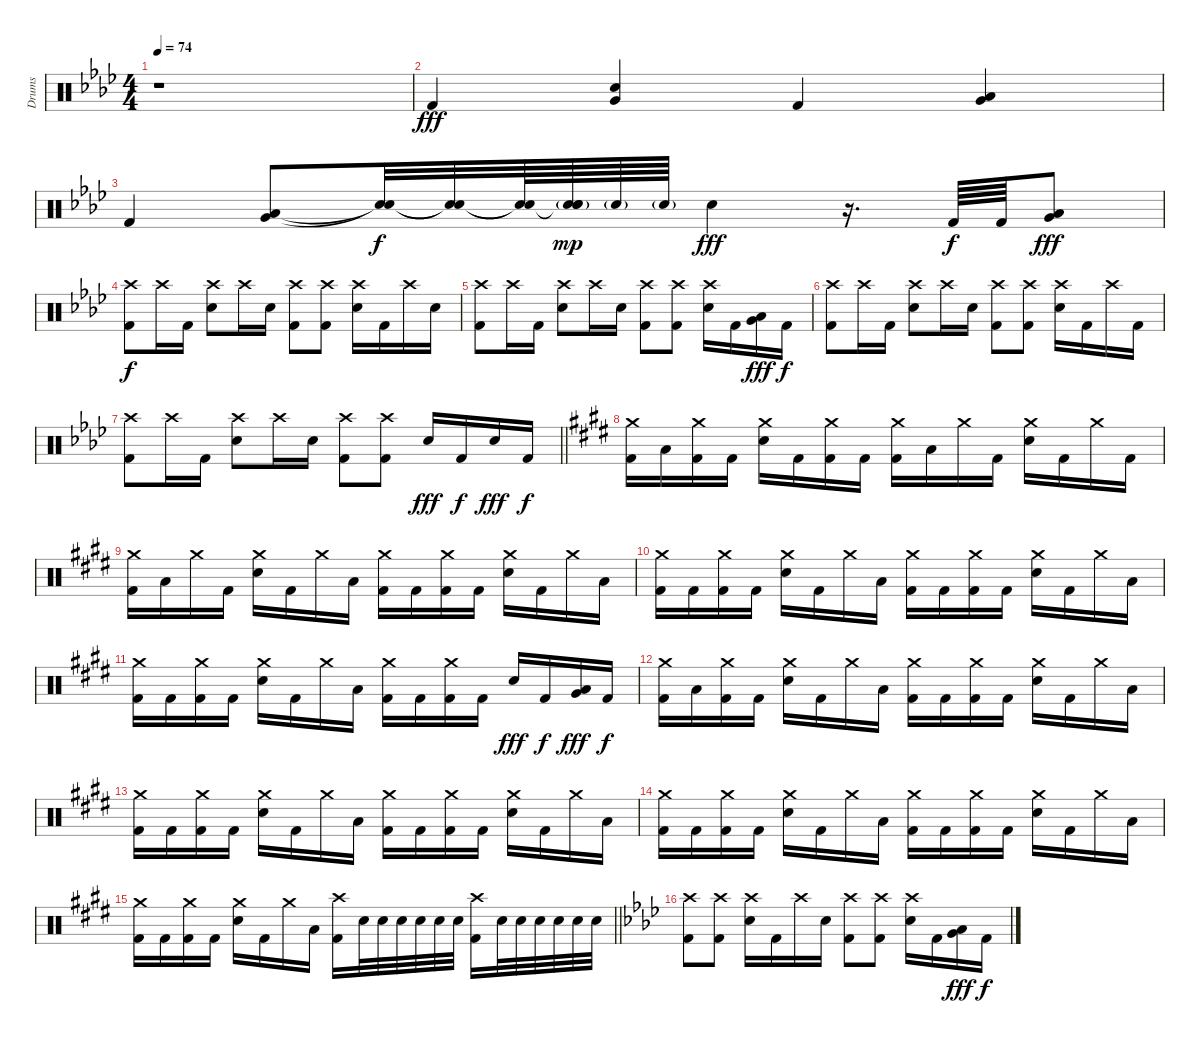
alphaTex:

\track ("Drums" "Drums") {instrument percussion}
\staff {score}
\articulation defaults
\ts (4 4)
\tempo 74
\clef neutral
\ks fminor
r.1{dy f} |
"Kick (hit) 2".4{dy fff} ("Snare (hit) 2" "Very Low Tom (hit)").4 "Kick (hit) 2".4 ("Low Tom (hit)" "Very Low Tom (hit)").4 |
"Kick (hit) 2".4 ("Low Tom (hit)" "Very Low Tom (hit)").8 ("Snare (hit)"{t} "Snare (hit)"{t}).32{dy f} ("Snare (hit)"{t} "Snare (hit)"{t}).32 ("Snare (hit)"{t} "Snare (hit)"{t}).64 ("Snare (hit) 2"{g} "Snare (hit)"{t} "Snare (hit)"{t}).64{dy mp} "Snare (hit) 2"{g}.64 "Snare (hit) 2"{g}.64 "Snare (hit) 2".4{dy fff} r.16{d} "Kick (hit) 2".64{dy f} "Kick (hit) 2".64 ("Low Tom (hit)" "Very Low Tom (hit)").8{dy fff} |
("Crash high (hit)" "Kick (hit) 2").8{dy f} "Crash high (hit)".16 "Kick (hit) 2".16 ("Crash high (hit)" "Snare (hit) 2").8 "Crash high (hit)".16 "Snare (hit) 2".16 ("Crash high (hit)" "Kick (hit) 2").8 ("Crash high (hit)" "Kick (hit) 2").8 ("Crash high (hit)" "Snare (hit) 2").16 "Kick (hit) 2".16 "Crash high (hit)".16 "Snare (hit) 2".16 |
("Crash high (hit)" "Kick (hit) 2").8 "Crash high (hit)".16 "Kick (hit) 2".16 ("Crash high (hit)" "Snare (hit) 2").8 "Crash high (hit)".16 "Snare (hit) 2".16 ("Crash high (hit)" "Kick (hit) 2").8 ("Crash high (hit)" "Kick (hit) 2").8 ("Crash high (hit)" "Snare (hit) 2").16 "Kick (hit) 2".16 ("Low Tom (hit)" "Very Low Tom (hit)").16{dy fff} "Kick (hit) 2".16{dy f} |
("Crash high (hit)" "Kick (hit) 2").8 "Crash high (hit)".16 "Kick (hit) 2".16 ("Crash high (hit)" "Snare (hit) 2").8 "Crash high (hit)".16 "Snare (hit) 2".16 ("Crash high (hit)" "Kick (hit) 2").8 ("Crash high (hit)" "Kick (hit) 2").8 ("Crash high (hit)" "Snare (hit) 2").16 "Kick (hit) 2".16 "Crash high (hit)".16 "Kick (hit) 2".16 |
\barLineRight lightlight
("Crash high (hit)" "Kick (hit) 2").8 "Crash high (hit)".16 "Kick (hit) 2".16 ("Crash high (hit)" "Snare (hit) 2").8 "Crash high (hit)".16 "Snare (hit) 2".16 ("Crash high (hit)" "Kick (hit) 2").8 ("Crash high (hit)" "Kick (hit) 2").8 "Snare (hit) 2".16{dy fff} "Kick (hit) 2".16{dy f} "Snare (hit) 2".16{dy fff} "Kick (hit) 2".16{dy f} |
\ks c#minor
("Crash medium (hit)" "Kick (hit) 2").16 "Low Tom (hit)".16 ("Crash medium (hit)" "Kick (hit) 2").16 "Kick (hit) 2".16 ("Crash medium (hit)" "Snare (hit) 2").16 "Kick (hit) 2".16 ("Crash medium (hit)" "Kick (hit) 2").16 "Kick (hit) 2".16 ("Crash medium (hit)" "Kick (hit) 2").16 "Low Tom (hit)".16 "Crash medium (hit)".16 "Kick (hit) 2".16 ("Crash medium (hit)" "Snare (hit) 2").16 "Kick (hit) 2".16 "Crash medium (hit)".16 "Kick (hit) 2".16 |
("Crash medium (hit)" "Kick (hit) 2").16 "Low Tom (hit)".16 "Crash medium (hit)".16 "Kick (hit) 2".16 ("Crash medium (hit)" "Snare (hit) 2").16 "Kick (hit) 2".16 "Crash medium (hit)".16 "Low Tom (hit)".16 ("Crash medium (hit)" "Kick (hit) 2").16 "Kick (hit) 2".16 ("Crash medium (hit)" "Kick (hit) 2").16 "Kick (hit) 2".16 ("Crash medium (hit)" "Snare (hit) 2").16 "Kick (hit) 2".16 "Crash medium (hit)".16 "Low Tom (hit)".16 |
("Crash medium (hit)" "Kick (hit) 2").16 "Kick (hit) 2".16 ("Crash medium (hit)" "Kick (hit) 2").16 "Kick (hit) 2".16 ("Crash medium (hit)" "Snare (hit) 2").16 "Kick (hit) 2".16 "Crash medium (hit)".16 "Low Tom (hit)".16 ("Crash medium (hit)" "Kick (hit) 2").16 "Kick (hit) 2".16 ("Crash medium (hit)" "Kick (hit) 2").16 "Kick (hit) 2".16 ("Crash medium (hit)" "Snare (hit) 2").16 "Kick (hit) 2".16 "Crash medium (hit)".16 "Low Tom (hit)".16 |
("Crash medium (hit)" "Kick (hit) 2").16 "Kick (hit) 2".16 ("Crash medium (hit)" "Kick (hit) 2").16 "Kick (hit) 2".16 ("Crash medium (hit)" "Snare (hit) 2").16 "Kick (hit) 2".16 "Crash medium (hit)".16 "Low Tom (hit)".16 ("Crash medium (hit)" "Kick (hit) 2").16 "Kick (hit) 2".16 ("Crash medium (hit)" "Kick (hit) 2").16 "Kick (hit) 2".16 "Snare (hit) 2".16{dy fff} "Kick (hit) 2".16{dy f} ("Low Tom (hit)" "Very Low Tom (hit)").16{dy fff} "Kick (hit) 2".16{dy f} |
("Crash medium (hit)" "Kick (hit) 2").16 "Low Tom (hit)".16 ("Crash medium (hit)" "Kick (hit) 2").16 "Kick (hit) 2".16 ("Crash medium (hit)" "Snare (hit) 2").16 "Kick (hit) 2".16 "Crash medium (hit)".16 "Low Tom (hit)".16 ("Crash medium (hit)" "Kick (hit) 2").16 "Kick (hit) 2".16 ("Crash medium (hit)" "Kick (hit) 2").16 "Kick (hit) 2".16 ("Crash medium (hit)" "Snare (hit) 2").16 "Kick (hit) 2".16 "Crash medium (hit)".16 "Low Tom (hit)".16 |
("Crash medium (hit)" "Kick (hit) 2").16 "Kick (hit) 2".16 ("Crash medium (hit)" "Kick (hit) 2").16 "Kick (hit) 2".16 ("Crash medium (hit)" "Snare (hit) 2").16 "Kick (hit) 2".16 "Crash medium (hit)".16 "Low Tom (hit)".16 ("Crash medium (hit)" "Kick (hit) 2").16 "Kick (hit) 2".16 ("Crash medium (hit)" "Kick (hit) 2").16 "Kick (hit) 2".16 ("Crash medium (hit)" "Snare (hit) 2").16 "Kick (hit) 2".16 "Crash medium (hit)".16 "Low Tom (hit)".16 |
("Crash medium (hit)" "Kick (hit) 2").16 "Kick (hit) 2".16 ("Crash medium (hit)" "Kick (hit) 2").16 "Kick (hit) 2".16 ("Crash medium (hit)" "Snare (hit) 2").16 "Kick (hit) 2".16 "Crash medium (hit)".16 "Low Tom (hit)".16 ("Crash medium (hit)" "Kick (hit) 2").16 "Kick (hit) 2".16 ("Crash medium (hit)" "Kick (hit) 2").16 "Kick (hit) 2".16 ("Crash medium (hit)" "Snare (hit) 2").16 "Kick (hit) 2".16 "Crash medium (hit)".16 "Low Tom (hit)".16 |
\barLineRight lightlight
("Crash medium (hit)" "Kick (hit) 2").16 "Kick (hit) 2".16 ("Crash medium (hit)" "Kick (hit) 2").16 "Kick (hit) 2".16 ("Crash medium (hit)" "Snare (hit) 2").16 "Kick (hit) 2".16 "Crash medium (hit)".16 "Low Tom (hit)".16 ("Crash high (hit)" "Kick (hit) 2").16 "Snare (hit) 2".32 "Snare (hit) 2".32 "Snare (hit) 2".32 "Snare (hit) 2".32 "Snare (hit) 2".32 "Snare (hit) 2".32 ("Crash high (hit)" "Kick (hit) 2").16 "Snare (hit) 2".32 "Snare (hit) 2".32 "Snare (hit) 2".32 "Snare (hit) 2".32 "Snare (hit) 2".32 "Snare (hit) 2".32 |
\ks fminor
("Crash high (hit)" "Kick (hit) 2").8 ("Crash high (hit)" "Kick (hit) 2").8 ("Crash high (hit)" "Snare (hit) 2").16 "Kick (hit) 2".16 "Crash high (hit)".16 "Snare (hit) 2".16 ("Crash high (hit)" "Kick (hit) 2").8 ("Crash high (hit)" "Kick (hit) 2").8 ("Crash high (hit)" "Snare (hit) 2").16 "Kick (hit) 2".16 ("Low Tom (hit)" "Very Low Tom (hit)").16{dy fff} "Kick (hit) 2".16{dy f}
